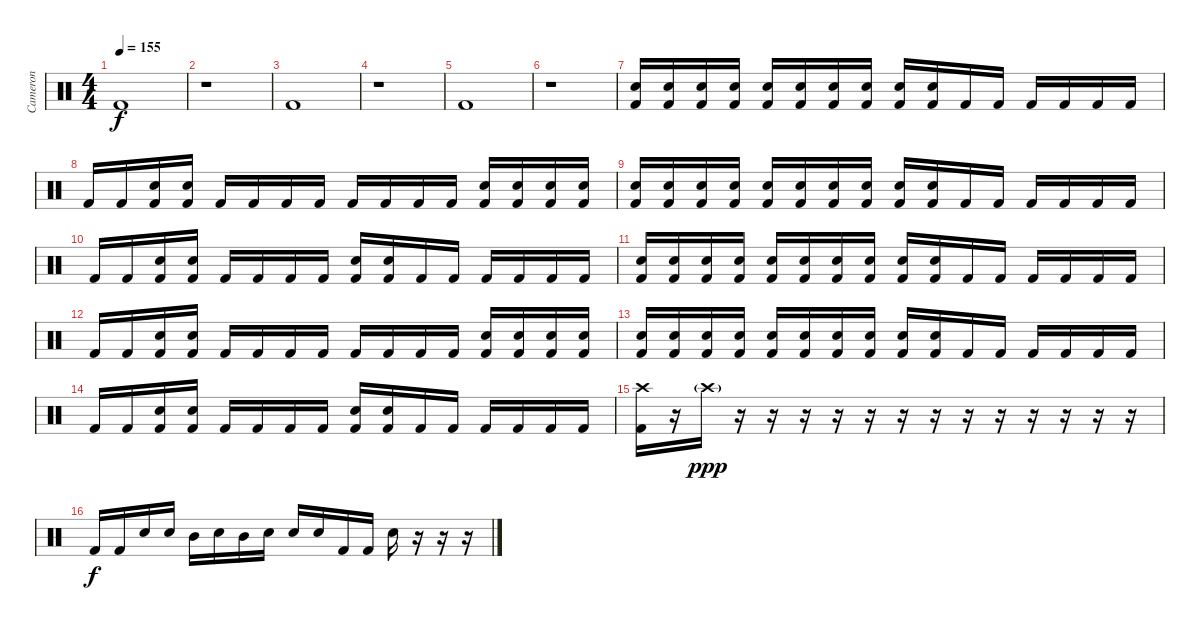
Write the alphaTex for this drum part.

\track ("Cameron" "Cameron") {instrument percussion}
\staff {score}
\articulation defaults
\ts (4 4)
\tempo 155
\clef neutral
\ks c "Kick (hit) 2".1{dy f}
|
r.1 |
"Kick (hit) 2".1 |
r.1 |
"Kick (hit) 2".1 |
r.1 |
("Snare (hit) 2" "Kick (hit) 2").16{volume 13} ("Snare (hit) 2" "Kick (hit) 2").16 ("Snare (hit) 2" "Kick (hit) 2").16 ("Snare (hit) 2" "Kick (hit) 2").16 ("Snare (hit) 2" "Kick (hit) 2").16 ("Snare (hit) 2" "Kick (hit) 2").16 ("Snare (hit) 2" "Kick (hit) 2").16 ("Snare (hit) 2" "Kick (hit) 2").16 ("Snare (hit) 2" "Kick (hit) 2").16 ("Snare (hit) 2" "Kick (hit) 2").16 "Kick (hit) 2".16 "Kick (hit) 2".16 "Kick (hit) 2".16 "Kick (hit) 2".16 "Kick (hit) 2".16 "Kick (hit) 2".16 |
"Kick (hit) 2".16 "Kick (hit) 2".16 ("Snare (hit) 2" "Kick (hit) 2").16 ("Snare (hit) 2" "Kick (hit) 2").16 "Kick (hit) 2".16 "Kick (hit) 2".16 "Kick (hit) 2".16 "Kick (hit) 2".16 "Kick (hit) 2".16 "Kick (hit) 2".16 "Kick (hit) 2".16 "Kick (hit) 2".16 ("Snare (hit) 2" "Kick (hit) 2").16 ("Snare (hit) 2" "Kick (hit) 2").16 ("Snare (hit) 2" "Kick (hit) 2").16 ("Snare (hit) 2" "Kick (hit) 2").16 |
("Snare (hit) 2" "Kick (hit) 2").16 ("Snare (hit) 2" "Kick (hit) 2").16 ("Snare (hit) 2" "Kick (hit) 2").16 ("Snare (hit) 2" "Kick (hit) 2").16 ("Snare (hit) 2" "Kick (hit) 2").16 ("Snare (hit) 2" "Kick (hit) 2").16 ("Snare (hit) 2" "Kick (hit) 2").16 ("Snare (hit) 2" "Kick (hit) 2").16 ("Snare (hit) 2" "Kick (hit) 2").16 ("Snare (hit) 2" "Kick (hit) 2").16 "Kick (hit) 2".16 "Kick (hit) 2".16 "Kick (hit) 2".16 "Kick (hit) 2".16 "Kick (hit) 2".16 "Kick (hit) 2".16 |
"Kick (hit) 2".16 "Kick (hit) 2".16 ("Snare (hit) 2" "Kick (hit) 2").16 ("Snare (hit) 2" "Kick (hit) 2").16 "Kick (hit) 2".16 "Kick (hit) 2".16 "Kick (hit) 2".16 "Kick (hit) 2".16 ("Snare (hit) 2" "Kick (hit) 2").16 ("Snare (hit) 2" "Kick (hit) 2").16 "Kick (hit) 2".16 "Kick (hit) 2".16 "Kick (hit) 2".16 "Kick (hit) 2".16 "Kick (hit) 2".16 "Kick (hit) 2".16 |
("Snare (hit) 2" "Kick (hit) 2").16 ("Snare (hit) 2" "Kick (hit) 2").16 ("Snare (hit) 2" "Kick (hit) 2").16 ("Snare (hit) 2" "Kick (hit) 2").16 ("Snare (hit) 2" "Kick (hit) 2").16 ("Snare (hit) 2" "Kick (hit) 2").16 ("Snare (hit) 2" "Kick (hit) 2").16 ("Snare (hit) 2" "Kick (hit) 2").16 ("Snare (hit) 2" "Kick (hit) 2").16 ("Snare (hit) 2" "Kick (hit) 2").16 "Kick (hit) 2".16 "Kick (hit) 2".16 "Kick (hit) 2".16 "Kick (hit) 2".16 "Kick (hit) 2".16 "Kick (hit) 2".16 |
"Kick (hit) 2".16 "Kick (hit) 2".16 ("Snare (hit) 2" "Kick (hit) 2").16 ("Snare (hit) 2" "Kick (hit) 2").16 "Kick (hit) 2".16 "Kick (hit) 2".16 "Kick (hit) 2".16 "Kick (hit) 2".16 "Kick (hit) 2".16 "Kick (hit) 2".16 "Kick (hit) 2".16 "Kick (hit) 2".16 ("Snare (hit) 2" "Kick (hit) 2").16 ("Snare (hit) 2" "Kick (hit) 2").16 ("Snare (hit) 2" "Kick (hit) 2").16 ("Snare (hit) 2" "Kick (hit) 2").16 |
("Snare (hit) 2" "Kick (hit) 2").16 ("Snare (hit) 2" "Kick (hit) 2").16 ("Snare (hit) 2" "Kick (hit) 2").16 ("Snare (hit) 2" "Kick (hit) 2").16 ("Snare (hit) 2" "Kick (hit) 2").16 ("Snare (hit) 2" "Kick (hit) 2").16 ("Snare (hit) 2" "Kick (hit) 2").16 ("Snare (hit) 2" "Kick (hit) 2").16 ("Snare (hit) 2" "Kick (hit) 2").16 ("Snare (hit) 2" "Kick (hit) 2").16 "Kick (hit) 2".16 "Kick (hit) 2".16 "Kick (hit) 2".16 "Kick (hit) 2".16 "Kick (hit) 2".16 "Kick (hit) 2".16 |
"Kick (hit) 2".16 "Kick (hit) 2".16 ("Snare (hit) 2" "Kick (hit) 2").16 ("Snare (hit) 2" "Kick (hit) 2").16 "Kick (hit) 2".16 "Kick (hit) 2".16 "Kick (hit) 2".16 "Kick (hit) 2".16 ("Snare (hit) 2" "Kick (hit) 2").16 ("Snare (hit) 2" "Kick (hit) 2").16 "Kick (hit) 2".16 "Kick (hit) 2".16 "Kick (hit) 2".16 "Kick (hit) 2".16 "Kick (hit) 2".16 "Kick (hit) 2".16 |
("Crash high (hit)" "Kick (hit) 2").16 r.16 "Crash high (hit)"{g}.16{dy ppp} r.16 r.16 r.16 r.16 r.16 r.16 r.16 r.16 r.16 r.16 r.16 r.16 r.16 |
"Kick (hit) 2".16{dy f} "Kick (hit) 2".16 "Snare (hit) 2".16 "Snare (hit) 2".16 "Mid Tom (hit)".16 "Snare (hit) 2".16 "Mid Tom (hit)".16 "Snare (hit) 2".16 "Snare (hit) 2".16 "Snare (hit) 2".16 "Kick (hit) 2".16 "Kick (hit) 2".16 "Snare (hit) 2".16 r.16 r.16 r.16
